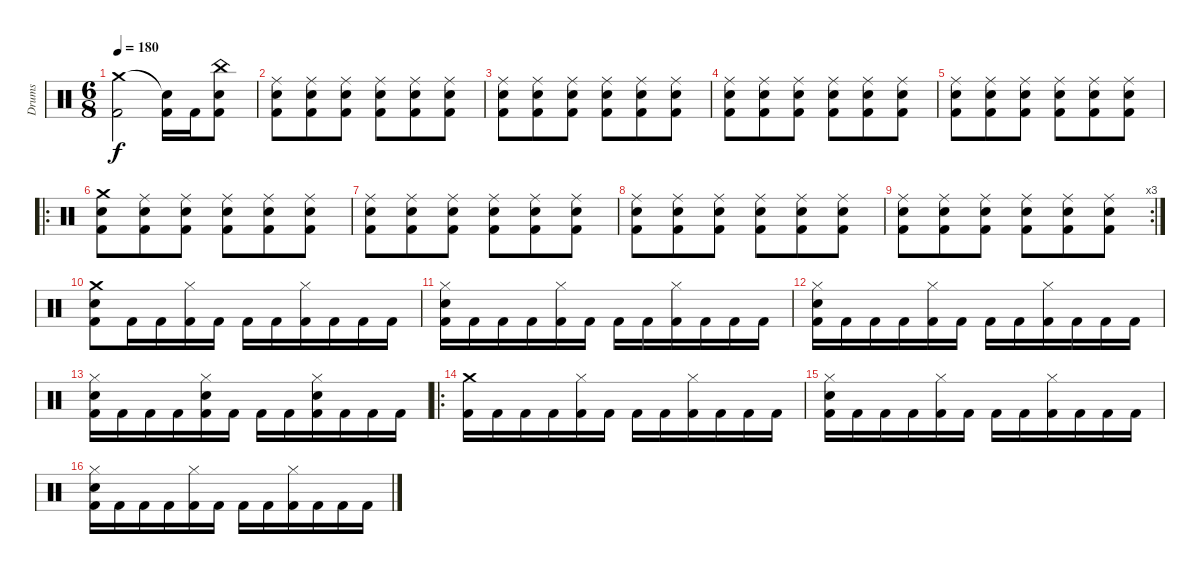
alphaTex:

\track ("Drums" "Drums") {instrument percussion}
\staff {score}
\articulation defaults
\ts (6 8)
\tempo 180
\clef neutral
\ks c
("Kick (hit) 2" "Crash medium (hit)").2{dy f} ("Kick (hit) 2" "Snare (hit)"{t}).16 "Kick (hit) 2".16 ("Kick (hit) 2" "Snare (hit) 2" "China (hit)").8 |
("Kick (hit) 2" "Snare (hit) 2" "Ride (middle)").8 ("Kick (hit) 2" "Snare (hit) 2" "Ride (middle)").8 ("Kick (hit) 2" "Snare (hit) 2" "Ride (middle)").8 ("Kick (hit) 2" "Snare (hit) 2" "Ride (middle)").8 ("Kick (hit) 2" "Snare (hit) 2" "Ride (middle)").8 ("Kick (hit) 2" "Snare (hit) 2" "Ride (middle)").8 |
("Kick (hit) 2" "Snare (hit) 2" "Ride (middle)").8 ("Kick (hit) 2" "Snare (hit) 2" "Ride (middle)").8 ("Kick (hit) 2" "Snare (hit) 2" "Ride (middle)").8 ("Kick (hit) 2" "Snare (hit) 2" "Ride (middle)").8 ("Kick (hit) 2" "Snare (hit) 2" "Ride (middle)").8 ("Kick (hit) 2" "Snare (hit) 2" "Ride (middle)").8 |
("Kick (hit) 2" "Snare (hit) 2" "Ride (middle)").8 ("Kick (hit) 2" "Snare (hit) 2" "Ride (middle)").8 ("Kick (hit) 2" "Snare (hit) 2" "Ride (middle)").8 ("Kick (hit) 2" "Snare (hit) 2" "Ride (middle)").8 ("Kick (hit) 2" "Snare (hit) 2" "Ride (middle)").8 ("Kick (hit) 2" "Snare (hit) 2" "Ride (middle)").8 |
("Kick (hit) 2" "Snare (hit) 2" "Ride (middle)").8 ("Kick (hit) 2" "Snare (hit) 2" "Ride (middle)").8 ("Kick (hit) 2" "Snare (hit) 2" "Ride (middle)").8 ("Kick (hit) 2" "Snare (hit) 2" "Ride (middle)").8 ("Kick (hit) 2" "Snare (hit) 2" "Ride (middle)").8 ("Kick (hit) 2" "Snare (hit) 2" "Ride (middle)").8 |
\ro
("Kick (hit) 2" "Snare (hit) 2" "Crash medium (hit)").8 ("Kick (hit) 2" "Snare (hit) 2" "Ride (middle)").8 ("Kick (hit) 2" "Snare (hit) 2" "Ride (middle)").8 ("Kick (hit) 2" "Snare (hit) 2" "Ride (middle)").8 ("Kick (hit) 2" "Snare (hit) 2" "Ride (middle)").8 ("Kick (hit) 2" "Snare (hit) 2" "Ride (middle)").8 |
("Kick (hit) 2" "Snare (hit) 2" "Ride (middle)").8 ("Kick (hit) 2" "Snare (hit) 2" "Ride (middle)").8 ("Kick (hit) 2" "Snare (hit) 2" "Ride (middle)").8 ("Kick (hit) 2" "Snare (hit) 2" "Ride (middle)").8 ("Kick (hit) 2" "Snare (hit) 2" "Ride (middle)").8 ("Kick (hit) 2" "Snare (hit) 2" "Ride (middle)").8 |
("Kick (hit) 2" "Snare (hit) 2" "Ride (middle)").8 ("Kick (hit) 2" "Snare (hit) 2" "Ride (middle)").8 ("Kick (hit) 2" "Snare (hit) 2" "Ride (middle)").8 ("Kick (hit) 2" "Snare (hit) 2" "Ride (middle)").8 ("Kick (hit) 2" "Snare (hit) 2" "Ride (middle)").8 ("Kick (hit) 2" "Snare (hit) 2" "Ride (middle)").8 |
\rc 3
("Kick (hit) 2" "Snare (hit) 2" "Ride (middle)").8 ("Kick (hit) 2" "Snare (hit) 2" "Ride (middle)").8 ("Kick (hit) 2" "Snare (hit) 2" "Ride (middle)").8 ("Kick (hit) 2" "Snare (hit) 2" "Ride (middle)").8 ("Kick (hit) 2" "Snare (hit) 2" "Ride (middle)").8 ("Kick (hit) 2" "Snare (hit) 2" "Ride (middle)").8 |
("Kick (hit) 2" "Snare (hit) 2" "Crash medium (hit)").8 "Kick (hit) 2".16 "Kick (hit) 2".16 ("Kick (hit) 2" "Hi-Hat (closed)").16 "Kick (hit) 2".16 "Kick (hit) 2".16 "Kick (hit) 2".16 ("Kick (hit) 2" "Hi-Hat (closed)").16 "Kick (hit) 2".16 "Kick (hit) 2".16 "Kick (hit) 2".16 |
("Kick (hit) 2" "Snare (hit) 2" "Hi-Hat (closed)").16 "Kick (hit) 2".16 "Kick (hit) 2".16 "Kick (hit) 2".16 ("Kick (hit) 2" "Hi-Hat (closed)").16 "Kick (hit) 2".16 "Kick (hit) 2".16 "Kick (hit) 2".16 ("Kick (hit) 2" "Hi-Hat (closed)").16 "Kick (hit) 2".16 "Kick (hit) 2".16 "Kick (hit) 2".16 |
("Kick (hit) 2" "Snare (hit) 2" "Hi-Hat (closed)").16 "Kick (hit) 2".16 "Kick (hit) 2".16 "Kick (hit) 2".16 ("Kick (hit) 2" "Hi-Hat (closed)").16 "Kick (hit) 2".16 "Kick (hit) 2".16 "Kick (hit) 2".16 ("Kick (hit) 2" "Hi-Hat (closed)").16 "Kick (hit) 2".16 "Kick (hit) 2".16 "Kick (hit) 2".16 |
("Kick (hit) 2" "Snare (hit) 2" "Hi-Hat (closed)").16 "Kick (hit) 2".16 "Kick (hit) 2".16 "Kick (hit) 2".16 ("Kick (hit) 2" "Snare (hit) 2" "Hi-Hat (closed)").16 "Kick (hit) 2".16 "Kick (hit) 2".16 "Kick (hit) 2".16 ("Kick (hit) 2" "Snare (hit) 2" "Hi-Hat (closed)").16 "Kick (hit) 2".16 "Kick (hit) 2".16 "Kick (hit) 2".16 |
\ro
("Kick (hit) 2" "Crash medium (hit)").16 "Kick (hit) 2".16 "Kick (hit) 2".16 "Kick (hit) 2".16 ("Kick (hit) 2" "Hi-Hat (closed)").16 "Kick (hit) 2".16 "Kick (hit) 2".16 "Kick (hit) 2".16 ("Kick (hit) 2" "Hi-Hat (closed)").16 "Kick (hit) 2".16 "Kick (hit) 2".16 "Kick (hit) 2".16 |
("Kick (hit) 2" "Snare (hit) 2" "Hi-Hat (closed)").16 "Kick (hit) 2".16 "Kick (hit) 2".16 "Kick (hit) 2".16 ("Kick (hit) 2" "Hi-Hat (closed)").16 "Kick (hit) 2".16 "Kick (hit) 2".16 "Kick (hit) 2".16 ("Kick (hit) 2" "Hi-Hat (closed)").16 "Kick (hit) 2".16 "Kick (hit) 2".16 "Kick (hit) 2".16 |
("Kick (hit) 2" "Snare (hit) 2" "Hi-Hat (closed)").16 "Kick (hit) 2".16 "Kick (hit) 2".16 "Kick (hit) 2".16 ("Kick (hit) 2" "Hi-Hat (closed)").16 "Kick (hit) 2".16 "Kick (hit) 2".16 "Kick (hit) 2".16 ("Kick (hit) 2" "Hi-Hat (closed)").16 "Kick (hit) 2".16 "Kick (hit) 2".16 "Kick (hit) 2".16
